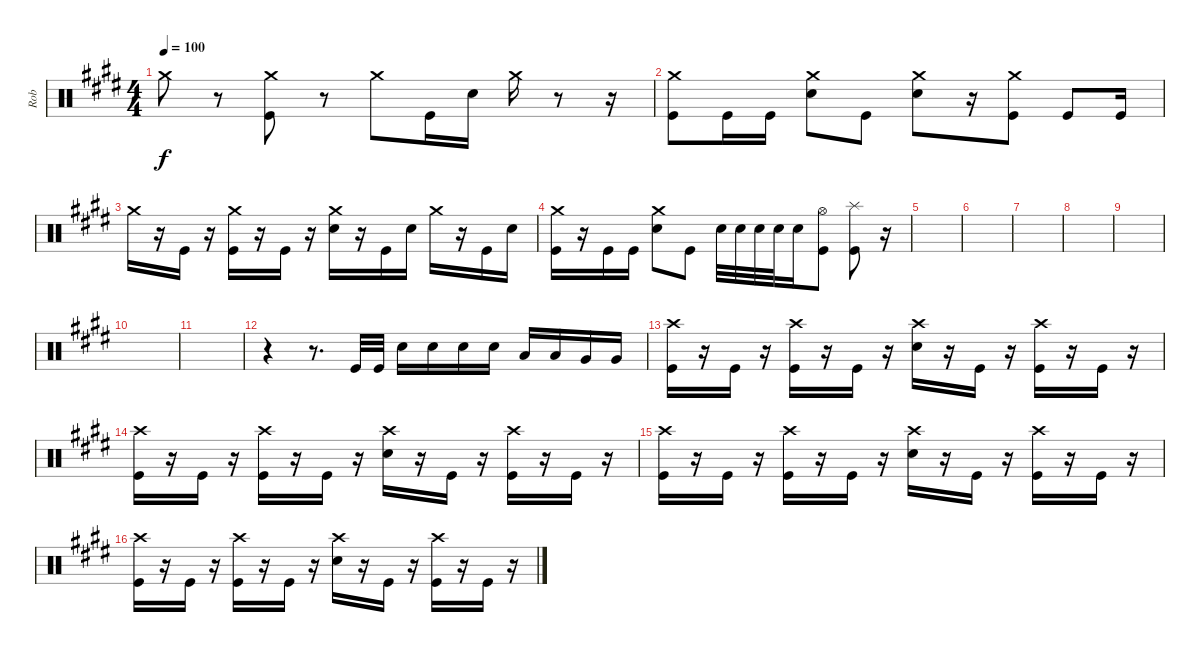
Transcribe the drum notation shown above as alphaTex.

\track ("Rob" "Rob") {instrument percussion}
\staff {score}
\articulation defaults
\ts (4 4)
\tempo 100
\clef neutral
\ks e "Crash medium (hit)".8{dy f}
r.8 ("Kick (hit)" "Crash medium (hit)").8 r.8 "Crash medium (hit)".8 "Kick (hit)".16 "Snare (hit) 2".16 "Crash medium (hit)".16 r.8 r.16 |
("Crash medium (hit)" "Kick (hit)").8 "Kick (hit)".16 "Kick (hit)".16 ("Crash medium (hit)" "Snare (hit) 2").8 "Kick (hit)".8 ("Snare (hit) 2" "Crash medium (hit)").8 r.16 ("Crash medium (hit)" "Kick (hit)").8 "Kick (hit)".8 "Kick (hit)".16 |
"Crash medium (hit)".16 r.16 "Kick (hit)".16 r.16 ("Crash medium (hit)" "Kick (hit)").16 r.16 "Kick (hit)".16 r.16 ("Crash medium (hit)" "Snare (hit) 2").16 r.16 "Kick (hit)".16 "Snare (hit) 2".16 "Crash medium (hit)".16 r.16 "Kick (hit)".16 "Snare (hit) 2".16 |
("Crash medium (hit)" "Kick (hit)").16 r.16 "Kick (hit)".16 "Kick (hit)".16 ("Crash medium (hit)" "Snare (hit) 2").8 "Kick (hit)".8 "Snare (hit) 2".32 "Snare (hit) 2".32 "Snare (hit) 2".32 "Snare (hit) 2".32 "Snare (hit) 2".16 ("Kick (hit)" "Hi-Hat (open)").8 ("Kick (hit)" "Splash (hit)").8 r.16 |
|
|
|
|
|
|
|
r.4 r.8{d} "Kick (hit)".32 "Kick (hit)".32 "Snare (hit) 2".16 "Snare (hit) 2".16 "Snare (hit) 2".16 "Snare (hit) 2".16 "Low Tom (hit)".16 "Low Tom (hit)".16 "Very Low Tom (hit)".16 "Very Low Tom (hit)".16 |
("Kick (hit)" "Crash high (hit)").16 r.16 "Kick (hit)".16 r.16 ("Kick (hit)" "Crash high (hit)").16 r.16 "Kick (hit)".16 r.16 ("Snare (hit) 2" "Crash high (hit)").16 r.16 "Kick (hit)".16 r.16 ("Kick (hit)" "Crash high (hit)").16 r.16 "Kick (hit)".16 r.16 |
("Kick (hit)" "Crash high (hit)").16 r.16 "Kick (hit)".16 r.16 ("Kick (hit)" "Crash high (hit)").16 r.16 "Kick (hit)".16 r.16 ("Snare (hit) 2" "Crash high (hit)").16 r.16 "Kick (hit)".16 r.16 ("Kick (hit)" "Crash high (hit)").16 r.16 "Kick (hit)".16 r.16 |
("Kick (hit)" "Crash high (hit)").16 r.16 "Kick (hit)".16 r.16 ("Kick (hit)" "Crash high (hit)").16 r.16 "Kick (hit)".16 r.16 ("Snare (hit) 2" "Crash high (hit)").16 r.16 "Kick (hit)".16 r.16 ("Kick (hit)" "Crash high (hit)").16 r.16 "Kick (hit)".16 r.16 |
("Kick (hit)" "Crash high (hit)").16 r.16 "Kick (hit)".16 r.16 ("Kick (hit)" "Crash high (hit)").16 r.16 "Kick (hit)".16 r.16 ("Snare (hit) 2" "Crash high (hit)").16 r.16 "Kick (hit)".16 r.16 ("Kick (hit)" "Crash high (hit)").16 r.16 "Kick (hit)".16 r.16
